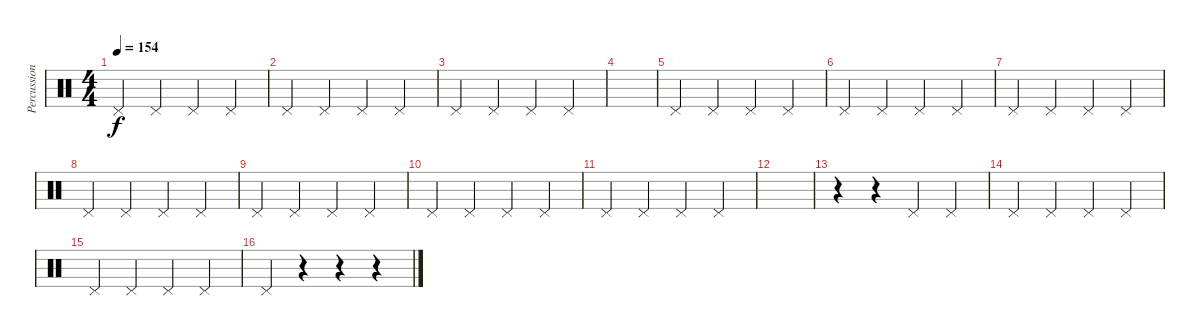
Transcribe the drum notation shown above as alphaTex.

\track ("Percussion" "Percussion") {instrument percussion}
\staff {score}
\articulation defaults
\ts (4 4)
\tempo 154
\clef neutral
\ks c "Pedal Hi-Hat (hit)".4{dy f} "Pedal Hi-Hat (hit)".4 "Pedal Hi-Hat (hit)".4 "Pedal Hi-Hat (hit)".4
|
"Pedal Hi-Hat (hit)".4 "Pedal Hi-Hat (hit)".4 "Pedal Hi-Hat (hit)".4 "Pedal Hi-Hat (hit)".4 |
"Pedal Hi-Hat (hit)".4 "Pedal Hi-Hat (hit)".4 "Pedal Hi-Hat (hit)".4 "Pedal Hi-Hat (hit)".4 |
|
"Pedal Hi-Hat (hit)".4 "Pedal Hi-Hat (hit)".4 "Pedal Hi-Hat (hit)".4 "Pedal Hi-Hat (hit)".4 |
"Pedal Hi-Hat (hit)".4 "Pedal Hi-Hat (hit)".4 "Pedal Hi-Hat (hit)".4 "Pedal Hi-Hat (hit)".4 |
"Pedal Hi-Hat (hit)".4 "Pedal Hi-Hat (hit)".4 "Pedal Hi-Hat (hit)".4 "Pedal Hi-Hat (hit)".4 |
"Pedal Hi-Hat (hit)".4 "Pedal Hi-Hat (hit)".4 "Pedal Hi-Hat (hit)".4 "Pedal Hi-Hat (hit)".4 |
"Pedal Hi-Hat (hit)".4 "Pedal Hi-Hat (hit)".4 "Pedal Hi-Hat (hit)".4 "Pedal Hi-Hat (hit)".4 |
"Pedal Hi-Hat (hit)".4 "Pedal Hi-Hat (hit)".4 "Pedal Hi-Hat (hit)".4 "Pedal Hi-Hat (hit)".4 |
"Pedal Hi-Hat (hit)".4 "Pedal Hi-Hat (hit)".4 "Pedal Hi-Hat (hit)".4 "Pedal Hi-Hat (hit)".4 |
|
r.4 r.4 "Pedal Hi-Hat (hit)".4 "Pedal Hi-Hat (hit)".4 |
"Pedal Hi-Hat (hit)".4 "Pedal Hi-Hat (hit)".4 "Pedal Hi-Hat (hit)".4 "Pedal Hi-Hat (hit)".4 |
"Pedal Hi-Hat (hit)".4 "Pedal Hi-Hat (hit)".4 "Pedal Hi-Hat (hit)".4 "Pedal Hi-Hat (hit)".4 |
"Pedal Hi-Hat (hit)".4 r.4 r.4 r.4
